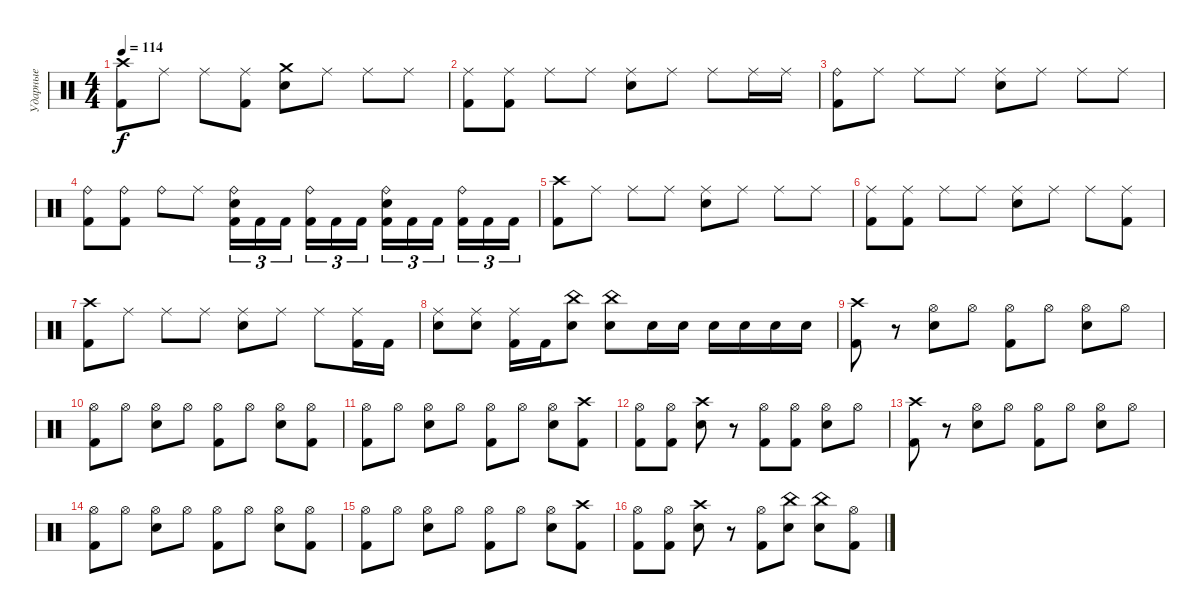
\track ("Ударные" "Ударные") {instrument percussion}
\staff {score}
\articulation defaults
\ts (4 4)
\tempo 114
\clef neutral
\ks c
("Crash high (hit)" "Kick (hit) 2").8{dy f} "Ride (middle)".8 "Ride (middle)".8 ("Ride (middle)" "Kick (hit) 2").8 ("Crash medium (hit)" "Electric Snare (hit)").8 "Ride (middle)".8 "Ride (middle)".8 "Ride (middle)".8 |
("Ride (middle)" "Kick (hit) 2").8 ("Ride (middle)" "Kick (hit) 2").8 "Ride (middle)".8 "Ride (middle)".8 ("Ride (middle)" "Electric Snare (hit)").8 "Ride (middle)".8 "Ride (middle)".8 "Ride (middle)".16 "Ride (middle)".16 |
("Ride (bell)" "Kick (hit) 2").8 "Ride (middle)".8 "Ride (middle)".8 "Ride (middle)".8 ("Ride (middle)" "Electric Snare (hit)").8 "Ride (middle)".8 "Ride (middle)".8 "Ride (middle)".8 |
("Ride (bell)" "Kick (hit) 2").8 ("Ride (bell)" "Kick (hit) 2").8 "Ride (bell)".8 "Ride (middle)".8 ("Ride (bell)" "Electric Snare (hit)" "Kick (hit) 2").16{tu (3 2)} "Kick (hit) 2".16{tu (3 2)} "Kick (hit) 2".16{tu (3 2) beam splitsecondary} ("Ride (bell)" "Kick (hit) 2").16{tu (3 2)} "Kick (hit) 2".16{tu (3 2)} "Kick (hit) 2".16{tu (3 2)} ("Ride (bell)" "Electric Snare (hit)" "Kick (hit) 2").16{tu (3 2)} "Kick (hit) 2".16{tu (3 2)} "Kick (hit) 2".16{tu (3 2) beam splitsecondary} ("Ride (bell)" "Kick (hit) 2").16{tu (3 2)} "Kick (hit) 2".16{tu (3 2)} "Kick (hit) 2".16{tu (3 2)} |
("Crash high (hit)" "Kick (hit) 2").8 "Ride (middle)".8 "Ride (middle)".8 "Ride (middle)".8 ("Ride (middle)" "Electric Snare (hit)").8 "Ride (middle)".8 "Ride (middle)".8 "Ride (middle)".8 |
("Ride (middle)" "Kick (hit) 2").8 ("Ride (middle)" "Kick (hit) 2").8 "Ride (middle)".8 "Ride (middle)".8 ("Ride (middle)" "Electric Snare (hit)").8 "Ride (middle)".8 "Ride (middle)".8 ("Ride (middle)" "Kick (hit) 2").8 |
("Crash high (hit)" "Kick (hit) 2").8 "Ride (middle)".8 "Ride (middle)".8 "Ride (middle)".8 ("Ride (middle)" "Electric Snare (hit)").8 "Ride (middle)".8 "Ride (middle)".8 ("Ride (middle)" "Kick (hit) 2").16 "Kick (hit) 2".16 |
("Ride (middle)" "Electric Snare (hit)").8 ("Ride (middle)" "Electric Snare (hit)").8 ("Ride (middle)" "Kick (hit) 2").16 "Kick (hit) 2".16 ("China (hit)" "Electric Snare (hit)").8 ("China (hit)" "Electric Snare (hit)").8 "Electric Snare (hit)".16 "Electric Snare (hit)".16 "Electric Snare (hit)".16 "Electric Snare (hit)".16 "Electric Snare (hit)".16 "Electric Snare (hit)".16 |
("Crash high (hit)" "Kick (hit) 2").8 r.8 ("Hi-Hat (open)" "Electric Snare (hit)").8 "Hi-Hat (open)".8 ("Hi-Hat (open)" "Kick (hit) 2").8 "Hi-Hat (open)".8 ("Hi-Hat (open)" "Electric Snare (hit)").8 "Hi-Hat (open)".8 |
("Hi-Hat (open)" "Kick (hit) 2").8 "Hi-Hat (open)".8 ("Hi-Hat (open)" "Electric Snare (hit)").8 "Hi-Hat (open)".8 ("Hi-Hat (open)" "Kick (hit) 2").8 "Hi-Hat (open)".8 ("Hi-Hat (open)" "Electric Snare (hit)").8 ("Hi-Hat (open)" "Kick (hit) 2").8 |
("Hi-Hat (open)" "Kick (hit) 2").8 "Hi-Hat (open)".8 ("Hi-Hat (open)" "Electric Snare (hit)").8 "Hi-Hat (open)".8 ("Hi-Hat (open)" "Kick (hit) 2").8 "Hi-Hat (open)".8 ("Hi-Hat (open)" "Electric Snare (hit)").8 ("Crash high (hit)" "Kick (hit) 2").8 |
("Hi-Hat (open)" "Kick (hit) 2").8 ("Hi-Hat (open)" "Kick (hit) 2").8 ("Crash high (hit)" "Electric Snare (hit)").8 r.8 ("Hi-Hat (open)" "Kick (hit) 2").8 ("Hi-Hat (open)" "Kick (hit) 2").8 ("Hi-Hat (open)" "Electric Snare (hit)").8 "Hi-Hat (open)".8 |
("Crash high (hit)" "Kick (hit) 2").8 r.8 ("Hi-Hat (open)" "Electric Snare (hit)").8 "Hi-Hat (open)".8 ("Hi-Hat (open)" "Kick (hit) 2").8 "Hi-Hat (open)".8 ("Hi-Hat (open)" "Electric Snare (hit)").8 "Hi-Hat (open)".8 |
("Hi-Hat (open)" "Kick (hit) 2").8 "Hi-Hat (open)".8 ("Hi-Hat (open)" "Electric Snare (hit)").8 "Hi-Hat (open)".8 ("Hi-Hat (open)" "Kick (hit) 2").8 "Hi-Hat (open)".8 ("Hi-Hat (open)" "Electric Snare (hit)").8 ("Hi-Hat (open)" "Kick (hit) 2").8 |
("Hi-Hat (open)" "Kick (hit) 2").8 "Hi-Hat (open)".8 ("Hi-Hat (open)" "Electric Snare (hit)").8 "Hi-Hat (open)".8 ("Hi-Hat (open)" "Kick (hit) 2").8 "Hi-Hat (open)".8 ("Hi-Hat (open)" "Electric Snare (hit)").8 ("Crash high (hit)" "Kick (hit) 2").8 |
("Hi-Hat (open)" "Kick (hit) 2").8 ("Hi-Hat (open)" "Kick (hit) 2").8 ("Crash high (hit)" "Electric Snare (hit)").8 r.8 ("Hi-Hat (open)" "Kick (hit) 2").8 ("China (hit)" "Electric Snare (hit)").8 ("China (hit)" "Electric Snare (hit)").8 ("Hi-Hat (open)" "Kick (hit) 2").8
